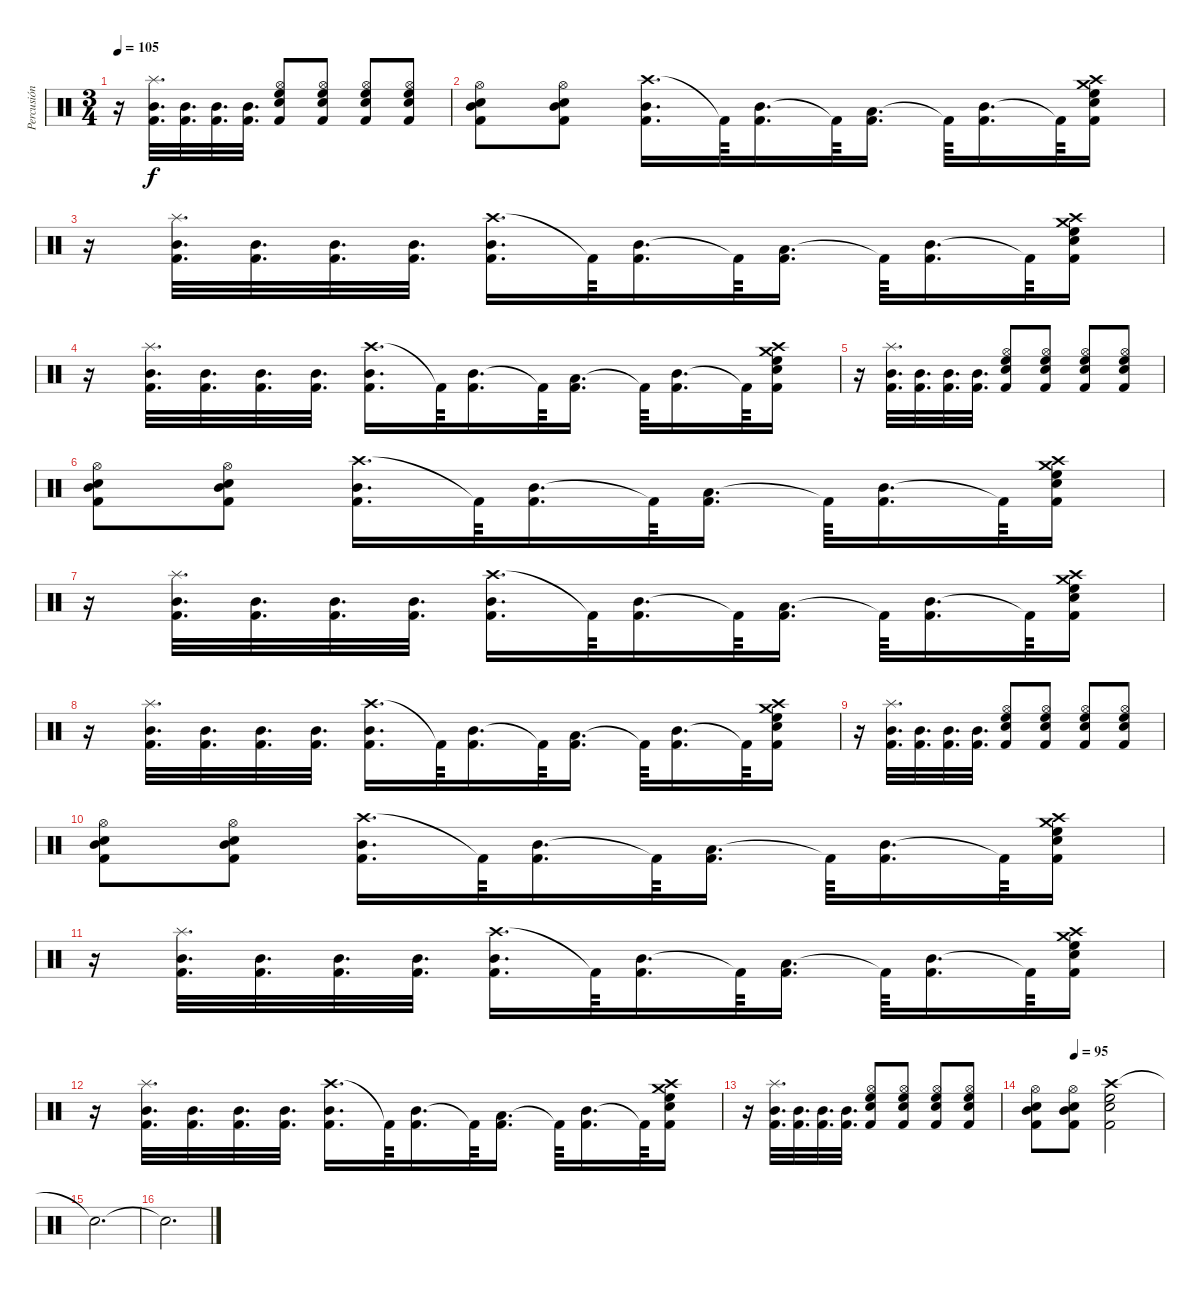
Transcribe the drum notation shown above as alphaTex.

\track ("Percusión" "Percusión") {instrument percussion}
\staff {score}
\articulation defaults
\ts (3 4)
\tempo 105
\clef neutral
\ks c
r.16{dy f} ("Splash (hit)" "Mid Tom (hit)" "Kick (hit) 2").32{d} ("Mid Tom (hit)" "Kick (hit) 2").32{d} ("Mid Tom (hit)" "Kick (hit) 2").32{d} ("Mid Tom (hit)" "Kick (hit) 2").32{d} ("Hi-Hat (open)" "High Floor Tom (hit)" "Snare (hit) 2" "Kick (hit) 2").8 ("Hi-Hat (open)" "High Floor Tom (hit)" "Snare (hit) 2" "Kick (hit) 2").8 ("Hi-Hat (open)" "High Floor Tom (hit)" "Snare (hit) 2" "Kick (hit) 2").8 ("Hi-Hat (open)" "High Floor Tom (hit)" "Snare (hit) 2" "Kick (hit) 2").8 |
("Hi-Hat (open)" "Mid Tom (hit)" "Snare (hit) 2" "Kick (hit) 2").8 ("Hi-Hat (open)" "Mid Tom (hit)" "Snare (hit) 2" "Kick (hit) 2").8 ("Crash high (hit)" "Mid Tom (hit)" "Kick (hit) 2").16{d} "Kick (hit) 2"{t}.64 ("Mid Tom (hit)" "Kick (hit) 2").16{d} "Kick (hit) 2"{t}.64 ("Low Tom (hit)" "Kick (hit) 2").16{d} "Kick (hit) 2"{t}.64 ("Mid Tom (hit)" "Kick (hit) 2").16{d} "Kick (hit) 2"{t}.64 ("Crash medium (hit)" "Crash high (hit)" "High Floor Tom (hit)" "Snare (hit) 2" "Kick (hit) 2").16 |
r.16 ("Splash (hit)" "Mid Tom (hit)" "Kick (hit) 2").32{d} ("Mid Tom (hit)" "Kick (hit) 2").32{d} ("Mid Tom (hit)" "Kick (hit) 2").32{d} ("Mid Tom (hit)" "Kick (hit) 2").32{d} ("Crash high (hit)" "Mid Tom (hit)" "Kick (hit) 2").16{d} "Kick (hit) 2"{t}.64 ("Mid Tom (hit)" "Kick (hit) 2").16{d} "Kick (hit) 2"{t}.64 ("Low Tom (hit)" "Kick (hit) 2").16{d} "Kick (hit) 2"{t}.64 ("Mid Tom (hit)" "Kick (hit) 2").16{d} "Kick (hit) 2"{t}.64 ("Crash medium (hit)" "Crash high (hit)" "High Floor Tom (hit)" "Snare (hit) 2" "Kick (hit) 2").16 |
r.16 ("Splash (hit)" "Mid Tom (hit)" "Kick (hit) 2").32{d} ("Mid Tom (hit)" "Kick (hit) 2").32{d} ("Mid Tom (hit)" "Kick (hit) 2").32{d} ("Mid Tom (hit)" "Kick (hit) 2").32{d} ("Crash high (hit)" "Mid Tom (hit)" "Kick (hit) 2").16{d} "Kick (hit) 2"{t}.64 ("Mid Tom (hit)" "Kick (hit) 2").16{d} "Kick (hit) 2"{t}.64 ("Low Tom (hit)" "Kick (hit) 2").16{d} "Kick (hit) 2"{t}.64 ("Mid Tom (hit)" "Kick (hit) 2").16{d} "Kick (hit) 2"{t}.64 ("Crash medium (hit)" "Crash high (hit)" "High Floor Tom (hit)" "Snare (hit) 2" "Kick (hit) 2").16 |
r.16 ("Splash (hit)" "Mid Tom (hit)" "Kick (hit) 2").32{d} ("Mid Tom (hit)" "Kick (hit) 2").32{d} ("Mid Tom (hit)" "Kick (hit) 2").32{d} ("Mid Tom (hit)" "Kick (hit) 2").32{d} ("Hi-Hat (open)" "High Floor Tom (hit)" "Snare (hit) 2" "Kick (hit) 2").8 ("Hi-Hat (open)" "High Floor Tom (hit)" "Snare (hit) 2" "Kick (hit) 2").8 ("Hi-Hat (open)" "High Floor Tom (hit)" "Snare (hit) 2" "Kick (hit) 2").8 ("Hi-Hat (open)" "High Floor Tom (hit)" "Snare (hit) 2" "Kick (hit) 2").8 |
("Hi-Hat (open)" "Mid Tom (hit)" "Snare (hit) 2" "Kick (hit) 2").8 ("Hi-Hat (open)" "Mid Tom (hit)" "Snare (hit) 2" "Kick (hit) 2").8 ("Crash high (hit)" "Mid Tom (hit)" "Kick (hit) 2").16{d} "Kick (hit) 2"{t}.64 ("Mid Tom (hit)" "Kick (hit) 2").16{d} "Kick (hit) 2"{t}.64 ("Low Tom (hit)" "Kick (hit) 2").16{d} "Kick (hit) 2"{t}.64 ("Mid Tom (hit)" "Kick (hit) 2").16{d} "Kick (hit) 2"{t}.64 ("Crash medium (hit)" "Crash high (hit)" "High Floor Tom (hit)" "Snare (hit) 2" "Kick (hit) 2").16 |
r.16 ("Splash (hit)" "Mid Tom (hit)" "Kick (hit) 2").32{d} ("Mid Tom (hit)" "Kick (hit) 2").32{d} ("Mid Tom (hit)" "Kick (hit) 2").32{d} ("Mid Tom (hit)" "Kick (hit) 2").32{d} ("Crash high (hit)" "Mid Tom (hit)" "Kick (hit) 2").16{d} "Kick (hit) 2"{t}.64 ("Mid Tom (hit)" "Kick (hit) 2").16{d} "Kick (hit) 2"{t}.64 ("Low Tom (hit)" "Kick (hit) 2").16{d} "Kick (hit) 2"{t}.64 ("Mid Tom (hit)" "Kick (hit) 2").16{d} "Kick (hit) 2"{t}.64 ("Crash medium (hit)" "Crash high (hit)" "High Floor Tom (hit)" "Snare (hit) 2" "Kick (hit) 2").16 |
r.16 ("Splash (hit)" "Mid Tom (hit)" "Kick (hit) 2").32{d} ("Mid Tom (hit)" "Kick (hit) 2").32{d} ("Mid Tom (hit)" "Kick (hit) 2").32{d} ("Mid Tom (hit)" "Kick (hit) 2").32{d} ("Crash high (hit)" "Mid Tom (hit)" "Kick (hit) 2").16{d} "Kick (hit) 2"{t}.64 ("Mid Tom (hit)" "Kick (hit) 2").16{d} "Kick (hit) 2"{t}.64 ("Low Tom (hit)" "Kick (hit) 2").16{d} "Kick (hit) 2"{t}.64 ("Mid Tom (hit)" "Kick (hit) 2").16{d} "Kick (hit) 2"{t}.64 ("Crash medium (hit)" "Crash high (hit)" "High Floor Tom (hit)" "Snare (hit) 2" "Kick (hit) 2").16 |
r.16 ("Splash (hit)" "Mid Tom (hit)" "Kick (hit) 2").32{d} ("Mid Tom (hit)" "Kick (hit) 2").32{d} ("Mid Tom (hit)" "Kick (hit) 2").32{d} ("Mid Tom (hit)" "Kick (hit) 2").32{d} ("Hi-Hat (open)" "High Floor Tom (hit)" "Snare (hit) 2" "Kick (hit) 2").8 ("Hi-Hat (open)" "High Floor Tom (hit)" "Snare (hit) 2" "Kick (hit) 2").8 ("Hi-Hat (open)" "High Floor Tom (hit)" "Snare (hit) 2" "Kick (hit) 2").8 ("Hi-Hat (open)" "High Floor Tom (hit)" "Snare (hit) 2" "Kick (hit) 2").8 |
("Hi-Hat (open)" "Mid Tom (hit)" "Snare (hit) 2" "Kick (hit) 2").8 ("Hi-Hat (open)" "Mid Tom (hit)" "Snare (hit) 2" "Kick (hit) 2").8 ("Crash high (hit)" "Mid Tom (hit)" "Kick (hit) 2").16{d} "Kick (hit) 2"{t}.64 ("Mid Tom (hit)" "Kick (hit) 2").16{d} "Kick (hit) 2"{t}.64 ("Low Tom (hit)" "Kick (hit) 2").16{d} "Kick (hit) 2"{t}.64 ("Mid Tom (hit)" "Kick (hit) 2").16{d} "Kick (hit) 2"{t}.64 ("Crash medium (hit)" "Crash high (hit)" "High Floor Tom (hit)" "Snare (hit) 2" "Kick (hit) 2").16 |
r.16 ("Splash (hit)" "Mid Tom (hit)" "Kick (hit) 2").32{d} ("Mid Tom (hit)" "Kick (hit) 2").32{d} ("Mid Tom (hit)" "Kick (hit) 2").32{d} ("Mid Tom (hit)" "Kick (hit) 2").32{d} ("Crash high (hit)" "Mid Tom (hit)" "Kick (hit) 2").16{d} "Kick (hit) 2"{t}.64 ("Mid Tom (hit)" "Kick (hit) 2").16{d} "Kick (hit) 2"{t}.64 ("Low Tom (hit)" "Kick (hit) 2").16{d} "Kick (hit) 2"{t}.64 ("Mid Tom (hit)" "Kick (hit) 2").16{d} "Kick (hit) 2"{t}.64 ("Crash medium (hit)" "Crash high (hit)" "High Floor Tom (hit)" "Snare (hit) 2" "Kick (hit) 2").16 |
r.16 ("Splash (hit)" "Mid Tom (hit)" "Kick (hit) 2").32{d} ("Mid Tom (hit)" "Kick (hit) 2").32{d} ("Mid Tom (hit)" "Kick (hit) 2").32{d} ("Mid Tom (hit)" "Kick (hit) 2").32{d} ("Crash high (hit)" "Mid Tom (hit)" "Kick (hit) 2").16{d} "Kick (hit) 2"{t}.64 ("Mid Tom (hit)" "Kick (hit) 2").16{d} "Kick (hit) 2"{t}.64 ("Low Tom (hit)" "Kick (hit) 2").16{d} "Kick (hit) 2"{t}.64 ("Mid Tom (hit)" "Kick (hit) 2").16{d} "Kick (hit) 2"{t}.64 ("Crash medium (hit)" "Crash high (hit)" "High Floor Tom (hit)" "Snare (hit) 2" "Kick (hit) 2").16 |
r.16 ("Splash (hit)" "Mid Tom (hit)" "Kick (hit) 2").32{d} ("Mid Tom (hit)" "Kick (hit) 2").32{d} ("Mid Tom (hit)" "Kick (hit) 2").32{d} ("Mid Tom (hit)" "Kick (hit) 2").32{d} ("Hi-Hat (open)" "High Floor Tom (hit)" "Snare (hit) 2" "Kick (hit) 2").8 ("Hi-Hat (open)" "High Floor Tom (hit)" "Snare (hit) 2" "Kick (hit) 2").8 ("Hi-Hat (open)" "High Floor Tom (hit)" "Snare (hit) 2" "Kick (hit) 2").8 ("Hi-Hat (open)" "High Floor Tom (hit)" "Snare (hit) 2" "Kick (hit) 2").8 |
\tempo (95 0.3333333333333333)
("Hi-Hat (open)" "Mid Tom (hit)" "Snare (hit) 2" "Kick (hit) 2").8 ("Hi-Hat (open)" "Mid Tom (hit)" "Snare (hit) 2" "Kick (hit) 2").8 ("Crash high (hit)" "High Floor Tom (hit)" "Snare (hit) 2" "Kick (hit) 2").2 |
"Snare (hit)"{t}.2{d} |
"Snare (hit)"{t}.2{d}
